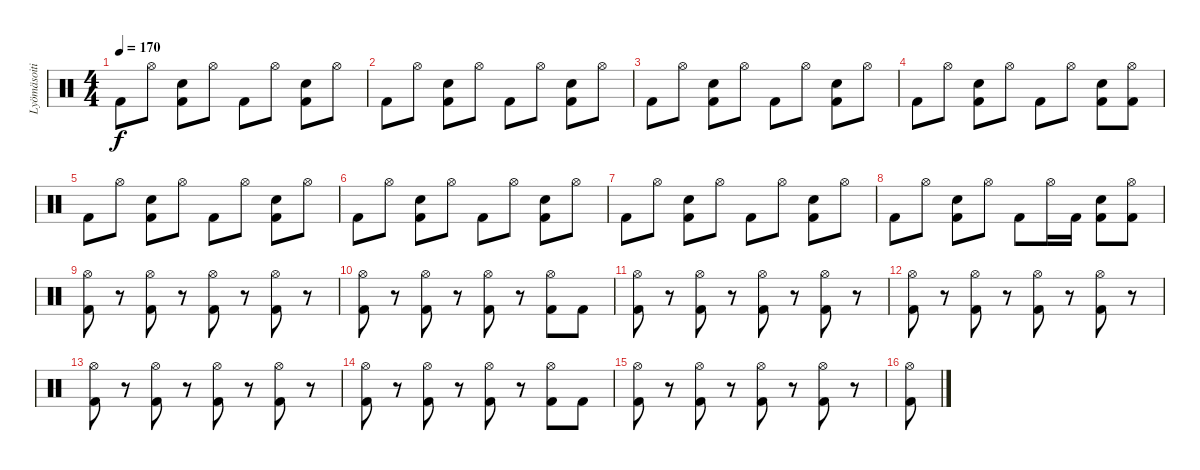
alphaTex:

\track ("Lyömäsoitin" "Lyömäsoiti") {instrument percussion}
\staff {score}
\articulation defaults
\ts (4 4)
\tempo 170
\clef neutral
\ks c "Kick (hit) 2".8{dy f} "Hi-Hat (open)".8
("Snare (hit) 2" "Kick (hit) 2").8 "Hi-Hat (open)".8 "Kick (hit) 2".8 "Hi-Hat (open)".8 ("Snare (hit) 2" "Kick (hit) 2").8 "Hi-Hat (open)".8 |
"Kick (hit) 2".8 "Hi-Hat (open)".8 ("Snare (hit) 2" "Kick (hit) 2").8 "Hi-Hat (open)".8 "Kick (hit) 2".8 "Hi-Hat (open)".8 ("Snare (hit) 2" "Kick (hit) 2").8 "Hi-Hat (open)".8 |
"Kick (hit) 2".8 "Hi-Hat (open)".8 ("Snare (hit) 2" "Kick (hit) 2").8 "Hi-Hat (open)".8 "Kick (hit) 2".8 "Hi-Hat (open)".8 ("Snare (hit) 2" "Kick (hit) 2").8 "Hi-Hat (open)".8 |
"Kick (hit) 2".8 "Hi-Hat (open)".8 ("Snare (hit) 2" "Kick (hit) 2").8 "Hi-Hat (open)".8 "Kick (hit) 2".8 "Hi-Hat (open)".8 ("Snare (hit) 2" "Kick (hit) 2").8 ("Hi-Hat (open)" "Kick (hit) 2").8 |
"Kick (hit) 2".8 "Hi-Hat (open)".8 ("Snare (hit) 2" "Kick (hit) 2").8 "Hi-Hat (open)".8 "Kick (hit) 2".8 "Hi-Hat (open)".8 ("Snare (hit) 2" "Kick (hit) 2").8 "Hi-Hat (open)".8 |
"Kick (hit) 2".8 "Hi-Hat (open)".8 ("Snare (hit) 2" "Kick (hit) 2").8 "Hi-Hat (open)".8 "Kick (hit) 2".8 "Hi-Hat (open)".8 ("Snare (hit) 2" "Kick (hit) 2").8 "Hi-Hat (open)".8 |
"Kick (hit) 2".8 "Hi-Hat (open)".8 ("Snare (hit) 2" "Kick (hit) 2").8 "Hi-Hat (open)".8 "Kick (hit) 2".8 "Hi-Hat (open)".8 ("Snare (hit) 2" "Kick (hit) 2").8 "Hi-Hat (open)".8 |
"Kick (hit) 2".8 "Hi-Hat (open)".8 ("Snare (hit) 2" "Kick (hit) 2").8 "Hi-Hat (open)".8 "Kick (hit) 2".8 "Hi-Hat (open)".16 "Kick (hit) 2".16 ("Snare (hit) 2" "Kick (hit) 2").8 ("Hi-Hat (open)" "Kick (hit) 2").8 |
("Hi-Hat (open)" "Kick (hit) 2").8 r.8 ("Hi-Hat (open)" "Kick (hit) 2").8 r.8 ("Hi-Hat (open)" "Kick (hit) 2").8 r.8 ("Hi-Hat (open)" "Kick (hit) 2").8 r.8 |
("Hi-Hat (open)" "Kick (hit) 2").8 r.8 ("Hi-Hat (open)" "Kick (hit) 2").8 r.8 ("Hi-Hat (open)" "Kick (hit) 2").8 r.8 ("Hi-Hat (open)" "Kick (hit) 2").8 "Kick (hit) 2".8 |
("Hi-Hat (open)" "Kick (hit) 2").8 r.8 ("Hi-Hat (open)" "Kick (hit) 2").8 r.8 ("Hi-Hat (open)" "Kick (hit) 2").8 r.8 ("Hi-Hat (open)" "Kick (hit) 2").8 r.8 |
("Hi-Hat (open)" "Kick (hit) 2").8 r.8 ("Hi-Hat (open)" "Kick (hit) 2").8 r.8 ("Hi-Hat (open)" "Kick (hit) 2").8 r.8 ("Hi-Hat (open)" "Kick (hit) 2").8 r.8 |
("Hi-Hat (open)" "Kick (hit) 2").8 r.8 ("Hi-Hat (open)" "Kick (hit) 2").8 r.8 ("Hi-Hat (open)" "Kick (hit) 2").8 r.8 ("Hi-Hat (open)" "Kick (hit) 2").8 r.8 |
("Hi-Hat (open)" "Kick (hit) 2").8 r.8 ("Hi-Hat (open)" "Kick (hit) 2").8 r.8 ("Hi-Hat (open)" "Kick (hit) 2").8 r.8 ("Hi-Hat (open)" "Kick (hit) 2").8 "Kick (hit) 2".8 |
("Hi-Hat (open)" "Kick (hit) 2").8 r.8 ("Hi-Hat (open)" "Kick (hit) 2").8 r.8 ("Hi-Hat (open)" "Kick (hit) 2").8 r.8 ("Hi-Hat (open)" "Kick (hit) 2").8 r.8 |
("Hi-Hat (open)" "Kick (hit) 2").8
